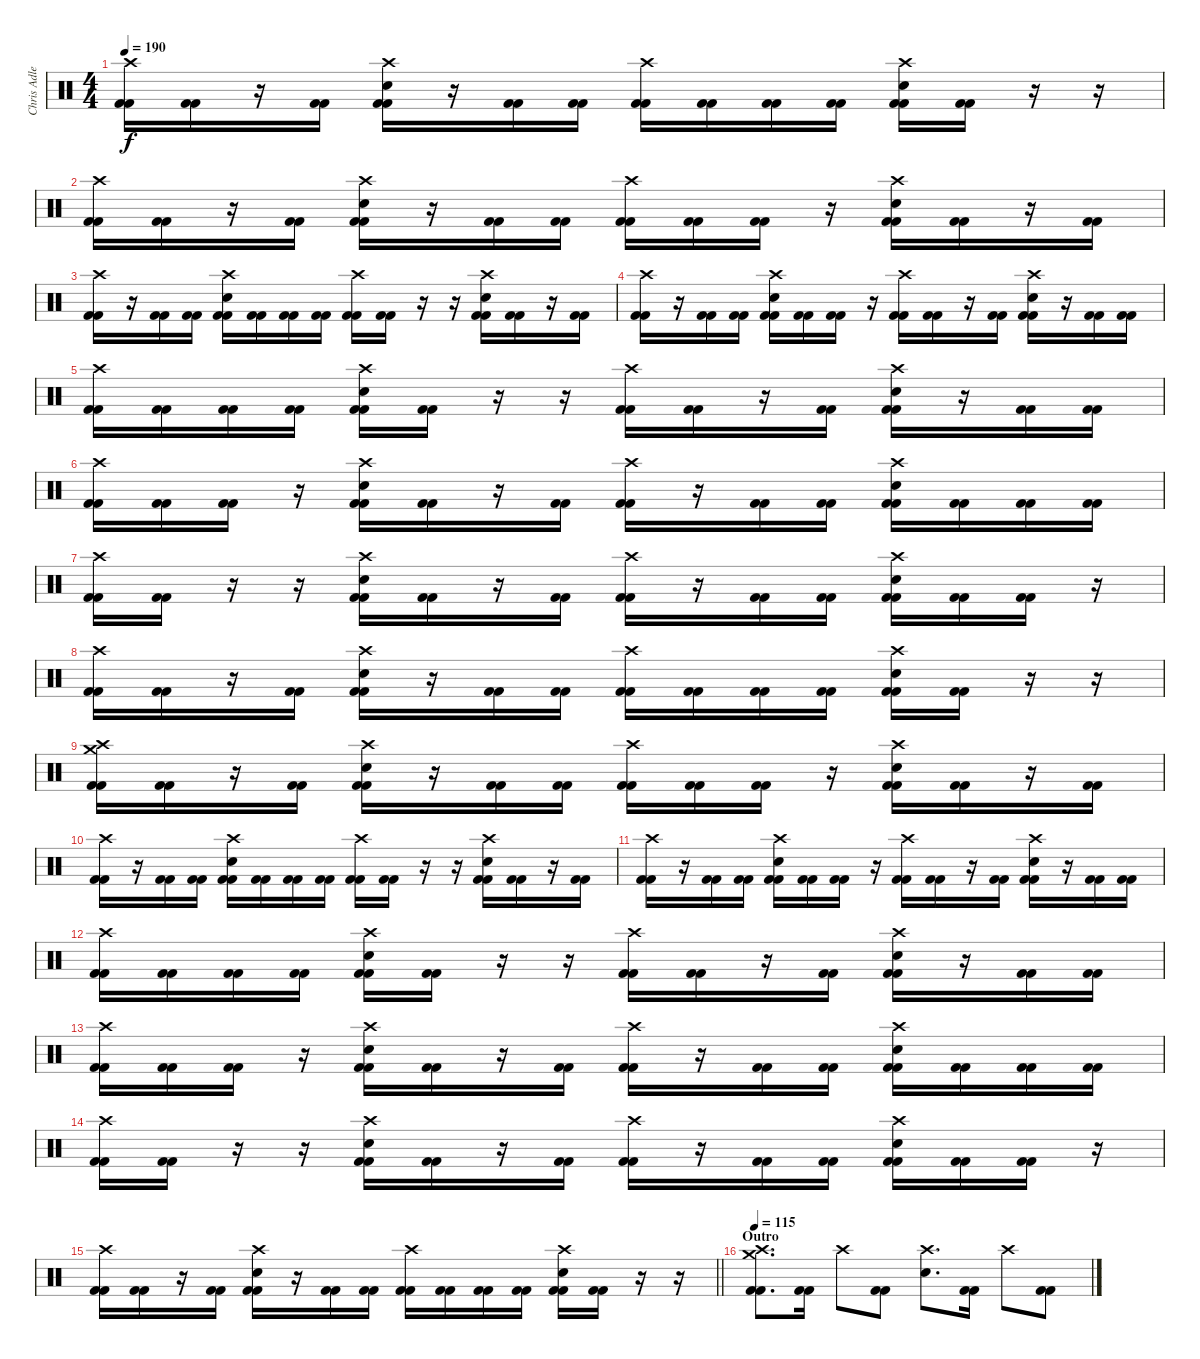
\track ("Chris Adler" "Chris Adle") {instrument percussion}
\staff {score}
\articulation defaults
\ts (4 4)
\tempo 190
\clef neutral
\ks c
("Crash high (hit)" "Kick (hit) 2" "Kick (hit) 2").16{dy f} ("Kick (hit) 2" "Kick (hit) 2").16 r.16 ("Kick (hit) 2" "Kick (hit) 2").16 ("Crash high (hit)" "Electric Snare (hit)" "Kick (hit) 2" "Kick (hit) 2").16 r.16 ("Kick (hit) 2" "Kick (hit) 2").16 ("Kick (hit) 2" "Kick (hit) 2").16 ("Crash high (hit)" "Kick (hit) 2" "Kick (hit) 2").16 ("Kick (hit) 2" "Kick (hit) 2").16 ("Kick (hit) 2" "Kick (hit) 2").16 ("Kick (hit) 2" "Kick (hit) 2").16 ("Crash high (hit)" "Electric Snare (hit)" "Kick (hit) 2" "Kick (hit) 2").16 ("Kick (hit) 2" "Kick (hit) 2").16 r.16 r.16 |
("Crash high (hit)" "Kick (hit) 2" "Kick (hit) 2").16 ("Kick (hit) 2" "Kick (hit) 2").16 r.16 ("Kick (hit) 2" "Kick (hit) 2").16 ("Crash high (hit)" "Electric Snare (hit)" "Kick (hit) 2" "Kick (hit) 2").16 r.16 ("Kick (hit) 2" "Kick (hit) 2").16 ("Kick (hit) 2" "Kick (hit) 2").16 ("Crash high (hit)" "Kick (hit) 2" "Kick (hit) 2").16 ("Kick (hit) 2" "Kick (hit) 2").16 ("Kick (hit) 2" "Kick (hit) 2").16 r.16 ("Crash high (hit)" "Electric Snare (hit)" "Kick (hit) 2" "Kick (hit) 2").16 ("Kick (hit) 2" "Kick (hit) 2").16 r.16 ("Kick (hit) 2" "Kick (hit) 2").16 |
("Crash high (hit)" "Kick (hit) 2" "Kick (hit) 2").16 r.16 ("Kick (hit) 2" "Kick (hit) 2").16 ("Kick (hit) 2" "Kick (hit) 2").16 ("Crash high (hit)" "Electric Snare (hit)" "Kick (hit) 2" "Kick (hit) 2").16 ("Kick (hit) 2" "Kick (hit) 2").16 ("Kick (hit) 2" "Kick (hit) 2").16 ("Kick (hit) 2" "Kick (hit) 2").16 ("Crash high (hit)" "Kick (hit) 2" "Kick (hit) 2").16 ("Kick (hit) 2" "Kick (hit) 2").16 r.16 r.16 ("Crash high (hit)" "Electric Snare (hit)" "Kick (hit) 2" "Kick (hit) 2").16 ("Kick (hit) 2" "Kick (hit) 2").16 r.16 ("Kick (hit) 2" "Kick (hit) 2").16 |
("Crash high (hit)" "Kick (hit) 2" "Kick (hit) 2").16 r.16 ("Kick (hit) 2" "Kick (hit) 2").16 ("Kick (hit) 2" "Kick (hit) 2").16 ("Crash high (hit)" "Electric Snare (hit)" "Kick (hit) 2" "Kick (hit) 2").16 ("Kick (hit) 2" "Kick (hit) 2").16 ("Kick (hit) 2" "Kick (hit) 2").16 r.16 ("Crash high (hit)" "Kick (hit) 2" "Kick (hit) 2").16 ("Kick (hit) 2" "Kick (hit) 2").16 r.16 ("Kick (hit) 2" "Kick (hit) 2").16 ("Crash high (hit)" "Electric Snare (hit)" "Kick (hit) 2" "Kick (hit) 2").16 r.16 ("Kick (hit) 2" "Kick (hit) 2").16 ("Kick (hit) 2" "Kick (hit) 2").16 |
("Crash high (hit)" "Kick (hit) 2" "Kick (hit) 2").16 ("Kick (hit) 2" "Kick (hit) 2").16 ("Kick (hit) 2" "Kick (hit) 2").16 ("Kick (hit) 2" "Kick (hit) 2").16 ("Crash high (hit)" "Electric Snare (hit)" "Kick (hit) 2" "Kick (hit) 2").16 ("Kick (hit) 2" "Kick (hit) 2").16 r.16 r.16 ("Crash high (hit)" "Kick (hit) 2" "Kick (hit) 2").16 ("Kick (hit) 2" "Kick (hit) 2").16 r.16 ("Kick (hit) 2" "Kick (hit) 2").16 ("Crash high (hit)" "Electric Snare (hit)" "Kick (hit) 2" "Kick (hit) 2").16 r.16 ("Kick (hit) 2" "Kick (hit) 2").16 ("Kick (hit) 2" "Kick (hit) 2").16 |
("Crash high (hit)" "Kick (hit) 2" "Kick (hit) 2").16 ("Kick (hit) 2" "Kick (hit) 2").16 ("Kick (hit) 2" "Kick (hit) 2").16 r.16 ("Crash high (hit)" "Electric Snare (hit)" "Kick (hit) 2" "Kick (hit) 2").16 ("Kick (hit) 2" "Kick (hit) 2").16 r.16 ("Kick (hit) 2" "Kick (hit) 2").16 ("Crash high (hit)" "Kick (hit) 2" "Kick (hit) 2").16 r.16 ("Kick (hit) 2" "Kick (hit) 2").16 ("Kick (hit) 2" "Kick (hit) 2").16 ("Crash high (hit)" "Electric Snare (hit)" "Kick (hit) 2" "Kick (hit) 2").16 ("Kick (hit) 2" "Kick (hit) 2").16 ("Kick (hit) 2" "Kick (hit) 2").16 ("Kick (hit) 2" "Kick (hit) 2").16 |
("Crash high (hit)" "Kick (hit) 2" "Kick (hit) 2").16 ("Kick (hit) 2" "Kick (hit) 2").16 r.16 r.16 ("Crash high (hit)" "Electric Snare (hit)" "Kick (hit) 2" "Kick (hit) 2").16 ("Kick (hit) 2" "Kick (hit) 2").16 r.16 ("Kick (hit) 2" "Kick (hit) 2").16 ("Crash high (hit)" "Kick (hit) 2" "Kick (hit) 2").16 r.16 ("Kick (hit) 2" "Kick (hit) 2").16 ("Kick (hit) 2" "Kick (hit) 2").16 ("Crash high (hit)" "Electric Snare (hit)" "Kick (hit) 2" "Kick (hit) 2").16 ("Kick (hit) 2" "Kick (hit) 2").16 ("Kick (hit) 2" "Kick (hit) 2").16 r.16 |
("Crash high (hit)" "Kick (hit) 2" "Kick (hit) 2").16 ("Kick (hit) 2" "Kick (hit) 2").16 r.16 ("Kick (hit) 2" "Kick (hit) 2").16 ("Crash high (hit)" "Electric Snare (hit)" "Kick (hit) 2" "Kick (hit) 2").16 r.16 ("Kick (hit) 2" "Kick (hit) 2").16 ("Kick (hit) 2" "Kick (hit) 2").16 ("Crash high (hit)" "Kick (hit) 2" "Kick (hit) 2").16 ("Kick (hit) 2" "Kick (hit) 2").16 ("Kick (hit) 2" "Kick (hit) 2").16 ("Kick (hit) 2" "Kick (hit) 2").16 ("Crash high (hit)" "Electric Snare (hit)" "Kick (hit) 2" "Kick (hit) 2").16 ("Kick (hit) 2" "Kick (hit) 2").16 r.16 r.16 |
("Crash medium (hit)" "Crash high (hit)" "Kick (hit) 2" "Kick (hit) 2").16 ("Kick (hit) 2" "Kick (hit) 2").16 r.16 ("Kick (hit) 2" "Kick (hit) 2").16 ("Crash high (hit)" "Electric Snare (hit)" "Kick (hit) 2" "Kick (hit) 2").16 r.16 ("Kick (hit) 2" "Kick (hit) 2").16 ("Kick (hit) 2" "Kick (hit) 2").16 ("Crash high (hit)" "Kick (hit) 2" "Kick (hit) 2").16 ("Kick (hit) 2" "Kick (hit) 2").16 ("Kick (hit) 2" "Kick (hit) 2").16 r.16 ("Crash high (hit)" "Electric Snare (hit)" "Kick (hit) 2" "Kick (hit) 2").16 ("Kick (hit) 2" "Kick (hit) 2").16 r.16 ("Kick (hit) 2" "Kick (hit) 2").16 |
("Crash high (hit)" "Kick (hit) 2" "Kick (hit) 2").16 r.16 ("Kick (hit) 2" "Kick (hit) 2").16 ("Kick (hit) 2" "Kick (hit) 2").16 ("Crash high (hit)" "Electric Snare (hit)" "Kick (hit) 2" "Kick (hit) 2").16 ("Kick (hit) 2" "Kick (hit) 2").16 ("Kick (hit) 2" "Kick (hit) 2").16 ("Kick (hit) 2" "Kick (hit) 2").16 ("Crash high (hit)" "Kick (hit) 2" "Kick (hit) 2").16 ("Kick (hit) 2" "Kick (hit) 2").16 r.16 r.16 ("Crash high (hit)" "Electric Snare (hit)" "Kick (hit) 2" "Kick (hit) 2").16 ("Kick (hit) 2" "Kick (hit) 2").16 r.16 ("Kick (hit) 2" "Kick (hit) 2").16 |
("Crash high (hit)" "Kick (hit) 2" "Kick (hit) 2").16 r.16 ("Kick (hit) 2" "Kick (hit) 2").16 ("Kick (hit) 2" "Kick (hit) 2").16 ("Crash high (hit)" "Electric Snare (hit)" "Kick (hit) 2" "Kick (hit) 2").16 ("Kick (hit) 2" "Kick (hit) 2").16 ("Kick (hit) 2" "Kick (hit) 2").16 r.16 ("Crash high (hit)" "Kick (hit) 2" "Kick (hit) 2").16 ("Kick (hit) 2" "Kick (hit) 2").16 r.16 ("Kick (hit) 2" "Kick (hit) 2").16 ("Crash high (hit)" "Electric Snare (hit)" "Kick (hit) 2" "Kick (hit) 2").16 r.16 ("Kick (hit) 2" "Kick (hit) 2").16 ("Kick (hit) 2" "Kick (hit) 2").16 |
("Crash high (hit)" "Kick (hit) 2" "Kick (hit) 2").16 ("Kick (hit) 2" "Kick (hit) 2").16 ("Kick (hit) 2" "Kick (hit) 2").16 ("Kick (hit) 2" "Kick (hit) 2").16 ("Crash high (hit)" "Electric Snare (hit)" "Kick (hit) 2" "Kick (hit) 2").16 ("Kick (hit) 2" "Kick (hit) 2").16 r.16 r.16 ("Crash high (hit)" "Kick (hit) 2" "Kick (hit) 2").16 ("Kick (hit) 2" "Kick (hit) 2").16 r.16 ("Kick (hit) 2" "Kick (hit) 2").16 ("Crash high (hit)" "Electric Snare (hit)" "Kick (hit) 2" "Kick (hit) 2").16 r.16 ("Kick (hit) 2" "Kick (hit) 2").16 ("Kick (hit) 2" "Kick (hit) 2").16 |
("Crash high (hit)" "Kick (hit) 2" "Kick (hit) 2").16 ("Kick (hit) 2" "Kick (hit) 2").16 ("Kick (hit) 2" "Kick (hit) 2").16 r.16 ("Crash high (hit)" "Electric Snare (hit)" "Kick (hit) 2" "Kick (hit) 2").16 ("Kick (hit) 2" "Kick (hit) 2").16 r.16 ("Kick (hit) 2" "Kick (hit) 2").16 ("Crash high (hit)" "Kick (hit) 2" "Kick (hit) 2").16 r.16 ("Kick (hit) 2" "Kick (hit) 2").16 ("Kick (hit) 2" "Kick (hit) 2").16 ("Crash high (hit)" "Electric Snare (hit)" "Kick (hit) 2" "Kick (hit) 2").16 ("Kick (hit) 2" "Kick (hit) 2").16 ("Kick (hit) 2" "Kick (hit) 2").16 ("Kick (hit) 2" "Kick (hit) 2").16 |
("Crash high (hit)" "Kick (hit) 2" "Kick (hit) 2").16 ("Kick (hit) 2" "Kick (hit) 2").16 r.16 r.16 ("Crash high (hit)" "Electric Snare (hit)" "Kick (hit) 2" "Kick (hit) 2").16 ("Kick (hit) 2" "Kick (hit) 2").16 r.16 ("Kick (hit) 2" "Kick (hit) 2").16 ("Crash high (hit)" "Kick (hit) 2" "Kick (hit) 2").16 r.16 ("Kick (hit) 2" "Kick (hit) 2").16 ("Kick (hit) 2" "Kick (hit) 2").16 ("Crash high (hit)" "Electric Snare (hit)" "Kick (hit) 2" "Kick (hit) 2").16 ("Kick (hit) 2" "Kick (hit) 2").16 ("Kick (hit) 2" "Kick (hit) 2").16 r.16 |
\barLineRight lightlight
("Crash high (hit)" "Kick (hit) 2" "Kick (hit) 2").16 ("Kick (hit) 2" "Kick (hit) 2").16 r.16 ("Kick (hit) 2" "Kick (hit) 2").16 ("Crash high (hit)" "Electric Snare (hit)" "Kick (hit) 2" "Kick (hit) 2").16 r.16 ("Kick (hit) 2" "Kick (hit) 2").16 ("Kick (hit) 2" "Kick (hit) 2").16 ("Crash high (hit)" "Kick (hit) 2" "Kick (hit) 2").16 ("Kick (hit) 2" "Kick (hit) 2").16 ("Kick (hit) 2" "Kick (hit) 2").16 ("Kick (hit) 2" "Kick (hit) 2").16 ("Crash high (hit)" "Electric Snare (hit)" "Kick (hit) 2" "Kick (hit) 2").16 ("Kick (hit) 2" "Kick (hit) 2").16 r.16 r.16 |
\section ("" "Outro")
\tempo 115
("Crash medium (hit)" "Crash high (hit)" "Kick (hit) 2" "Kick (hit) 2").8{d} ("Kick (hit) 2" "Kick (hit) 2").16 "Crash high (hit)".8 ("Kick (hit) 2" "Kick (hit) 2").8 ("Crash high (hit)" "Electric Snare (hit)").8{d} ("Kick (hit) 2" "Kick (hit) 2").16 "Crash high (hit)".8 ("Kick (hit) 2" "Kick (hit) 2").8
